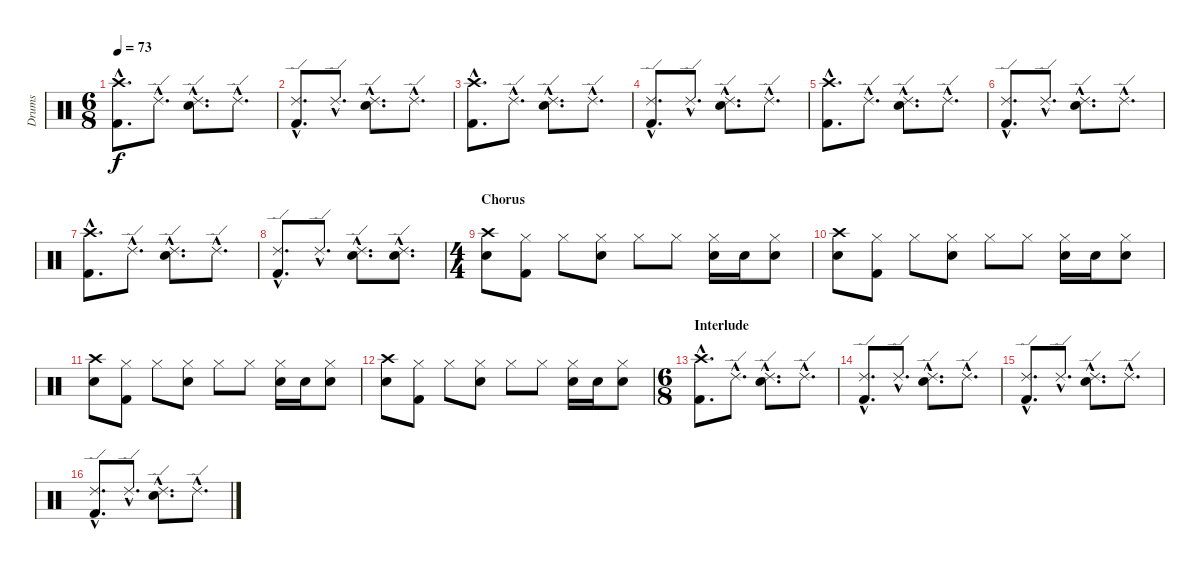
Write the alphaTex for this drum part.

\track ("Drums" "Drums") {instrument percussion}
\staff {score}
\articulation defaults
\ts (6 8)
\tempo 73
\clef neutral
\ks c
("Crash high (hit)"{hac} "Kick (hit) 2"{hac}).8{d dy f} "Ride (edge) 2"{hac}.8{d} ("Ride (edge) 2"{hac} "Electric Snare (hit)"{hac}).8{d} "Ride (edge) 2"{hac}.8{d} |
("Ride (edge) 2"{hac} "Kick (hit) 2"{hac}).8{d} "Ride (edge) 2"{hac}.8{d} ("Ride (edge) 2"{hac} "Electric Snare (hit)"{hac}).8{d} "Ride (edge) 2"{hac}.8{d} |
("Crash high (hit)"{hac} "Kick (hit) 2"{hac}).8{d} "Ride (edge) 2"{hac}.8{d} ("Ride (edge) 2"{hac} "Electric Snare (hit)"{hac}).8{d} "Ride (edge) 2"{hac}.8{d} |
("Ride (edge) 2"{hac} "Kick (hit) 2"{hac}).8{d} "Ride (edge) 2"{hac}.8{d} ("Ride (edge) 2"{hac} "Electric Snare (hit)"{hac}).8{d} "Ride (edge) 2"{hac}.8{d} |
("Crash high (hit)"{hac} "Kick (hit) 2"{hac}).8{d} "Ride (edge) 2"{hac}.8{d} ("Ride (edge) 2"{hac} "Electric Snare (hit)"{hac}).8{d} "Ride (edge) 2"{hac}.8{d} |
("Ride (edge) 2"{hac} "Kick (hit) 2"{hac}).8{d} "Ride (edge) 2"{hac}.8{d} ("Ride (edge) 2"{hac} "Electric Snare (hit)"{hac}).8{d} "Ride (edge) 2"{hac}.8{d} |
("Crash high (hit)"{hac} "Kick (hit) 2"{hac}).8{d} "Ride (edge) 2"{hac}.8{d} ("Ride (edge) 2"{hac} "Electric Snare (hit)"{hac}).8{d} "Ride (edge) 2"{hac}.8{d} |
("Ride (edge) 2"{hac} "Kick (hit) 2"{hac}).8{d} "Ride (edge) 2"{hac}.8{d} ("Ride (edge) 2"{hac} "Electric Snare (hit)"{hac}).8{d} ("Ride (edge) 2"{hac} "Snare (hit) 2"{hac}).8{d} |
\ts (4 4)
\section ("" "Chorus")
("Crash high (hit)" "Snare (hit) 2").8 ("Hi-Hat (closed)" "Kick (hit) 2").8 "Hi-Hat (closed)".8 ("Hi-Hat (closed)" "Snare (hit) 2").8 "Hi-Hat (closed)".8 "Hi-Hat (closed)".8 ("Hi-Hat (closed)" "Electric Snare (hit)").16 "Electric Snare (hit)".16 ("Hi-Hat (closed)" "Electric Snare (hit)").8 |
("Crash high (hit)" "Snare (hit) 2").8 ("Hi-Hat (closed)" "Kick (hit) 2").8 "Hi-Hat (closed)".8 ("Hi-Hat (closed)" "Snare (hit) 2").8 "Hi-Hat (closed)".8 "Hi-Hat (closed)".8 ("Hi-Hat (closed)" "Electric Snare (hit)").16 "Electric Snare (hit)".16 ("Hi-Hat (closed)" "Electric Snare (hit)").8 |
("Crash high (hit)" "Snare (hit) 2").8 ("Hi-Hat (closed)" "Kick (hit) 2").8 "Hi-Hat (closed)".8 ("Hi-Hat (closed)" "Snare (hit) 2").8 "Hi-Hat (closed)".8 "Hi-Hat (closed)".8 ("Hi-Hat (closed)" "Electric Snare (hit)").16 "Electric Snare (hit)".16 ("Hi-Hat (closed)" "Electric Snare (hit)").8 |
("Crash high (hit)" "Snare (hit) 2").8 ("Hi-Hat (closed)" "Kick (hit) 2").8 "Hi-Hat (closed)".8 ("Hi-Hat (closed)" "Snare (hit) 2").8 "Hi-Hat (closed)".8 "Hi-Hat (closed)".8 ("Hi-Hat (closed)" "Electric Snare (hit)").16 "Electric Snare (hit)".16 ("Hi-Hat (closed)" "Electric Snare (hit)").8 |
\ts (6 8)
\section ("" "Interlude")
("Crash high (hit)"{hac} "Kick (hit) 2"{hac}).8{d} "Ride (edge) 2"{hac}.8{d} ("Ride (edge) 2"{hac} "Electric Snare (hit)"{hac}).8{d} "Ride (edge) 2"{hac}.8{d} |
("Ride (edge) 2"{hac} "Kick (hit) 2"{hac}).8{d} "Ride (edge) 2"{hac}.8{d} ("Ride (edge) 2"{hac} "Electric Snare (hit)"{hac}).8{d} "Ride (edge) 2"{hac}.8{d} |
("Ride (edge) 2"{hac} "Kick (hit) 2"{hac}).8{d} "Ride (edge) 2"{hac}.8{d} ("Ride (edge) 2"{hac} "Electric Snare (hit)"{hac}).8{d} "Ride (edge) 2"{hac}.8{d} |
("Ride (edge) 2"{hac} "Kick (hit) 2"{hac}).8{d} "Ride (edge) 2"{hac}.8{d} ("Ride (edge) 2"{hac} "Electric Snare (hit)"{hac}).8{d} "Ride (edge) 2"{hac}.8{d}
